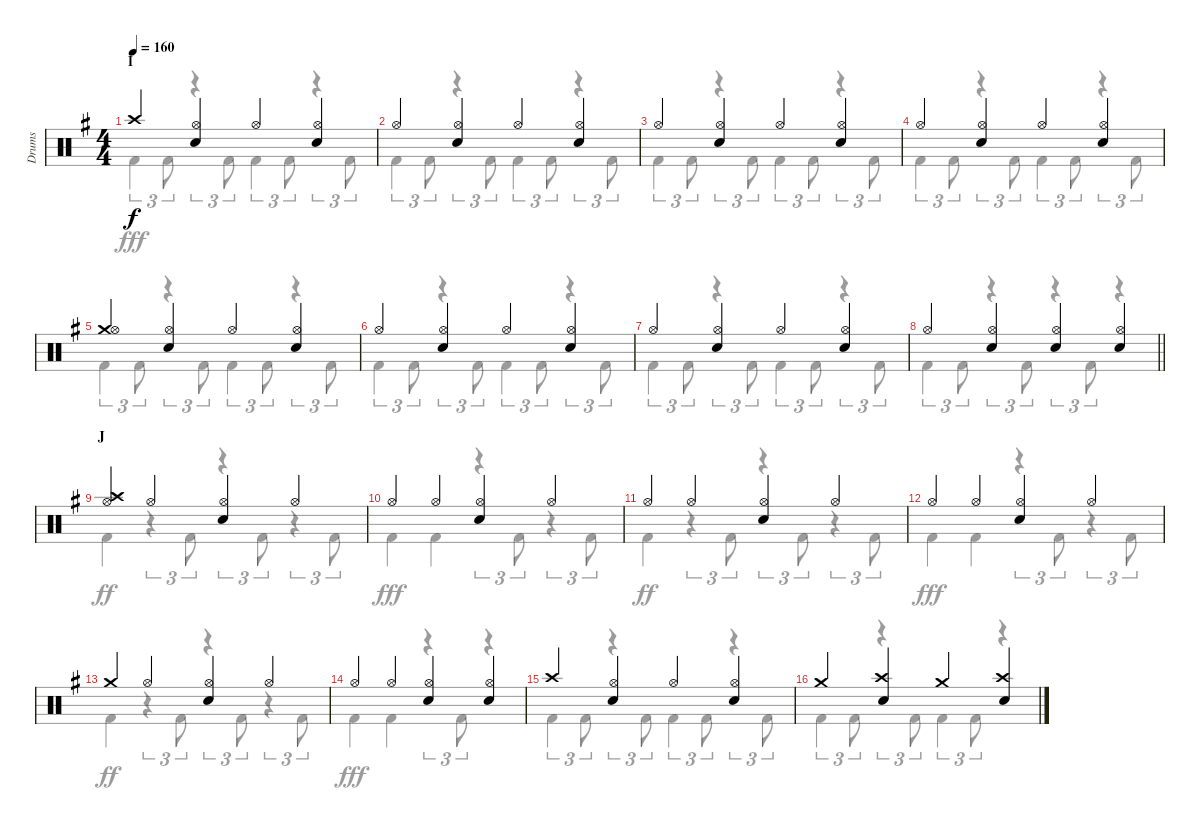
\track ("Drums" "Drums") {instrument percussion}
\staff {score}
\articulation defaults
\voice
\ts (4 4)
\section ("" "I")
\tempo 160
\clef neutral
\ks eminor "Crash high (hit)".4{dy f}
("Hi-Hat (open)" "Snare (hit) 2").4 "Hi-Hat (open)".4 ("Hi-Hat (open)" "Snare (hit) 2").4 |
"Hi-Hat (open)".4 ("Hi-Hat (open)" "Snare (hit) 2").4 "Hi-Hat (open)".4 ("Hi-Hat (open)" "Snare (hit) 2").4 |
"Hi-Hat (open)".4 ("Hi-Hat (open)" "Snare (hit) 2").4 "Hi-Hat (open)".4 ("Hi-Hat (open)" "Snare (hit) 2").4 |
"Hi-Hat (open)".4 ("Hi-Hat (open)" "Snare (hit) 2").4 "Hi-Hat (open)".4 ("Hi-Hat (open)" "Snare (hit) 2").4 |
("Crash medium (hit)" "Hi-Hat (open)").4 ("Hi-Hat (open)" "Snare (hit) 2").4 "Hi-Hat (open)".4 ("Hi-Hat (open)" "Snare (hit) 2").4 |
"Hi-Hat (open)".4 ("Hi-Hat (open)" "Snare (hit) 2").4 "Hi-Hat (open)".4 ("Hi-Hat (open)" "Snare (hit) 2").4 |
"Hi-Hat (open)".4 ("Hi-Hat (open)" "Snare (hit) 2").4 "Hi-Hat (open)".4 ("Hi-Hat (open)" "Snare (hit) 2").4 |
\barLineRight lightlight "Hi-Hat (open)".4
("Hi-Hat (open)" "Snare (hit) 2").4 ("Hi-Hat (open)" "Snare (hit) 2").4 ("Hi-Hat (open)" "Snare (hit) 2").4 |
\section ("" "J")
("Crash high (hit)" "Hi-Hat (open)").4 "Hi-Hat (open)".4 ("Hi-Hat (open)" "Snare (hit) 2").4 "Hi-Hat (open)".4 |
"Hi-Hat (open)".4 "Hi-Hat (open)".4 ("Hi-Hat (open)" "Snare (hit) 2").4 "Hi-Hat (open)".4 |
"Hi-Hat (open)".4 "Hi-Hat (open)".4 ("Hi-Hat (open)" "Snare (hit) 2").4 "Hi-Hat (open)".4 |
"Hi-Hat (open)".4 "Hi-Hat (open)".4 ("Hi-Hat (open)" "Snare (hit) 2").4 "Hi-Hat (open)".4 |
"Crash medium (hit)".4 "Hi-Hat (open)".4 ("Hi-Hat (open)" "Snare (hit) 2").4 "Hi-Hat (open)".4 |
"Hi-Hat (open)".4 "Hi-Hat (open)".4 ("Hi-Hat (open)" "Snare (hit) 2").4 ("Hi-Hat (open)" "Snare (hit) 2").4 |
"Crash high (hit)".4 ("Hi-Hat (open)" "Snare (hit) 2").4 "Hi-Hat (open)".4 ("Hi-Hat (open)" "Snare (hit) 2").4 |
"Crash medium (hit)".4 ("Crash high (hit)" "Snare (hit) 2").4 "Crash medium (hit)".4 ("Crash high (hit)" "Snare (hit) 2").4
\voice
\clef neutral
\ottava regular
\simile none
\ks eminor "Kick (hit) 2".4{tu (3 2) dy fff} "Kick (hit) 2".8{tu (3 2)}
r.4{tu (3 2)} "Kick (hit) 2".8{tu (3 2)} "Kick (hit) 2".4{tu (3 2)} "Kick (hit) 2".8{tu (3 2)} r.4{tu (3 2)} "Kick (hit) 2".8{tu (3 2)} |
"Kick (hit) 2".4{tu (3 2)} "Kick (hit) 2".8{tu (3 2)} r.4{tu (3 2)} "Kick (hit) 2".8{tu (3 2)} "Kick (hit) 2".4{tu (3 2)} "Kick (hit) 2".8{tu (3 2)} r.4{tu (3 2)} "Kick (hit) 2".8{tu (3 2)} |
"Kick (hit) 2".4{tu (3 2)} "Kick (hit) 2".8{tu (3 2)} r.4{tu (3 2)} "Kick (hit) 2".8{tu (3 2)} "Kick (hit) 2".4{tu (3 2)} "Kick (hit) 2".8{tu (3 2)} r.4{tu (3 2)} "Kick (hit) 2".8{tu (3 2)} |
"Kick (hit) 2".4{tu (3 2)} "Kick (hit) 2".8{tu (3 2)} r.4{tu (3 2)} "Kick (hit) 2".8{tu (3 2)} "Kick (hit) 2".4{tu (3 2)} "Kick (hit) 2".8{tu (3 2)} r.4{tu (3 2)} "Kick (hit) 2".8{tu (3 2)} |
"Kick (hit) 2".4{tu (3 2)} "Kick (hit) 2".8{tu (3 2)} r.4{tu (3 2)} "Kick (hit) 2".8{tu (3 2)} "Kick (hit) 2".4{tu (3 2)} "Kick (hit) 2".8{tu (3 2)} r.4{tu (3 2)} "Kick (hit) 2".8{tu (3 2)} |
"Kick (hit) 2".4{tu (3 2)} "Kick (hit) 2".8{tu (3 2)} r.4{tu (3 2)} "Kick (hit) 2".8{tu (3 2)} "Kick (hit) 2".4{tu (3 2)} "Kick (hit) 2".8{tu (3 2)} r.4{tu (3 2)} "Kick (hit) 2".8{tu (3 2)} |
"Kick (hit) 2".4{tu (3 2)} "Kick (hit) 2".8{tu (3 2)} r.4{tu (3 2)} "Kick (hit) 2".8{tu (3 2)} "Kick (hit) 2".4{tu (3 2)} "Kick (hit) 2".8{tu (3 2)} r.4{tu (3 2)} "Kick (hit) 2".8{tu (3 2)} |
\barLineRight lightlight "Kick (hit) 2".4{tu (3 2)} "Kick (hit) 2".8{tu (3 2)}
r.4{tu (3 2)} "Kick (hit) 2".8{tu (3 2)} r.4{tu (3 2)} "Kick (hit) 2".8{tu (3 2)} r.4 |
"Kick (hit) 2".4{dy ff} r.4{tu (3 2)} "Kick (hit) 2".8{tu (3 2)} r.4{tu (3 2)} "Kick (hit) 2".8{tu (3 2)} r.4{tu (3 2)} "Kick (hit) 2".8{tu (3 2)} |
"Kick (hit) 2".4{dy fff} "Kick (hit) 2".4 r.4{tu (3 2)} "Kick (hit) 2".8{tu (3 2)} r.4{tu (3 2)} "Kick (hit) 2".8{tu (3 2)} |
"Kick (hit) 2".4{dy ff} r.4{tu (3 2)} "Kick (hit) 2".8{tu (3 2)} r.4{tu (3 2)} "Kick (hit) 2".8{tu (3 2)} r.4{tu (3 2)} "Kick (hit) 2".8{tu (3 2)} |
"Kick (hit) 2".4{dy fff} "Kick (hit) 2".4 r.4{tu (3 2)} "Kick (hit) 2".8{tu (3 2)} r.4{tu (3 2)} "Kick (hit) 2".8{tu (3 2)} |
"Kick (hit) 2".4{dy ff} r.4{tu (3 2)} "Kick (hit) 2".8{tu (3 2)} r.4{tu (3 2)} "Kick (hit) 2".8{tu (3 2)} r.4{tu (3 2)} "Kick (hit) 2".8{tu (3 2)} |
"Kick (hit) 2".4{dy fff} "Kick (hit) 2".4 r.4{tu (3 2)} "Kick (hit) 2".8{tu (3 2)} r.4 |
"Kick (hit) 2".4{tu (3 2)} "Kick (hit) 2".8{tu (3 2)} r.4{tu (3 2)} "Kick (hit) 2".8{tu (3 2)} "Kick (hit) 2".4{tu (3 2)} "Kick (hit) 2".8{tu (3 2)} r.4{tu (3 2)} "Kick (hit) 2".8{tu (3 2)} |
"Kick (hit) 2".4{tu (3 2)} "Kick (hit) 2".8{tu (3 2)} r.4{tu (3 2)} "Kick (hit) 2".8{tu (3 2)} "Kick (hit) 2".4{tu (3 2)} "Kick (hit) 2".8{tu (3 2)} r.4
